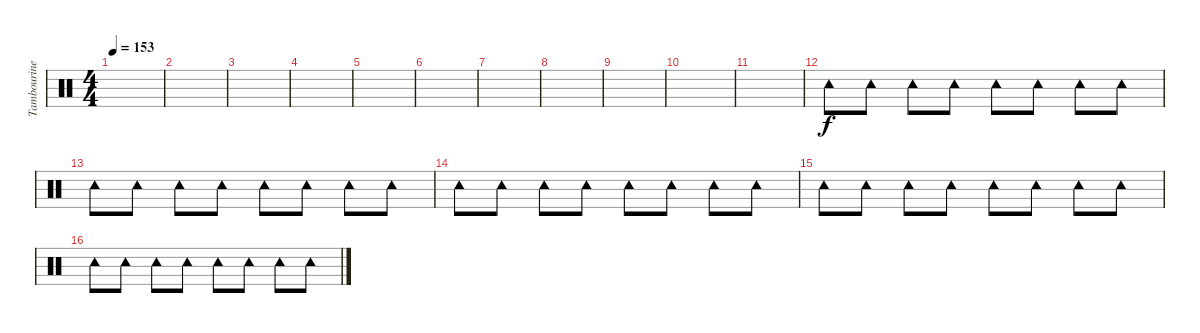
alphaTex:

\track ("Tambourine" "Tambourine") {instrument percussion}
\staff {score}
\articulation defaults
\ts (4 4)
\tempo 153
\clef neutral
\ks c
|
|
|
|
|
|
|
|
|
|
|
"Tambourine (hit)".8 "Tambourine (hit)".8 "Tambourine (hit)".8 "Tambourine (hit)".8 "Tambourine (hit)".8 "Tambourine (hit)".8 "Tambourine (hit)".8 "Tambourine (hit)".8 |
"Tambourine (hit)".8 "Tambourine (hit)".8 "Tambourine (hit)".8 "Tambourine (hit)".8 "Tambourine (hit)".8 "Tambourine (hit)".8 "Tambourine (hit)".8 "Tambourine (hit)".8 |
"Tambourine (hit)".8 "Tambourine (hit)".8 "Tambourine (hit)".8 "Tambourine (hit)".8 "Tambourine (hit)".8 "Tambourine (hit)".8 "Tambourine (hit)".8 "Tambourine (hit)".8 |
"Tambourine (hit)".8 "Tambourine (hit)".8 "Tambourine (hit)".8 "Tambourine (hit)".8 "Tambourine (hit)".8 "Tambourine (hit)".8 "Tambourine (hit)".8 "Tambourine (hit)".8 |
"Tambourine (hit)".8 "Tambourine (hit)".8 "Tambourine (hit)".8 "Tambourine (hit)".8 "Tambourine (hit)".8 "Tambourine (hit)".8 "Tambourine (hit)".8 "Tambourine (hit)".8
